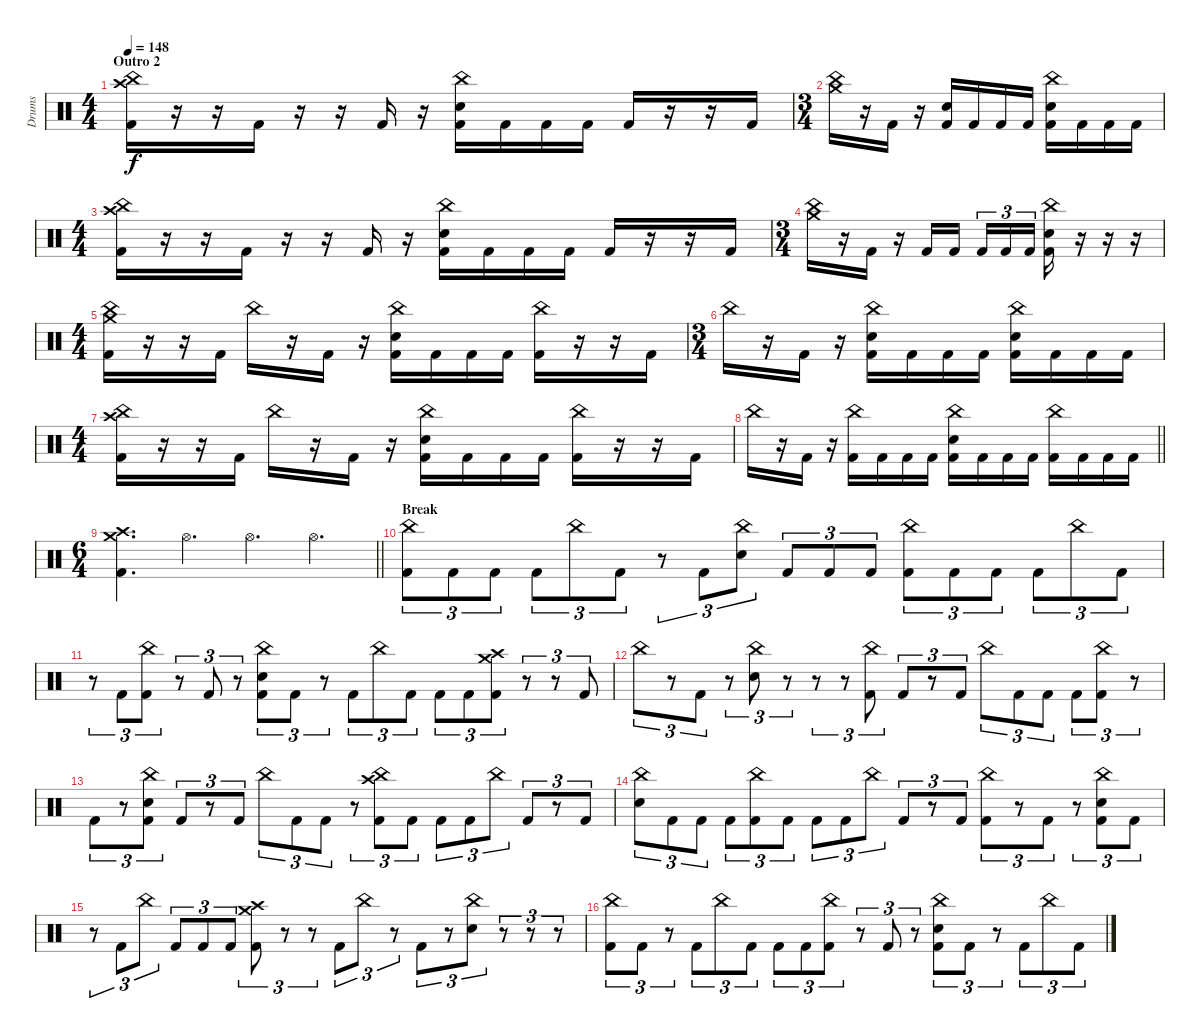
\track ("Drums" "Drums") {instrument percussion}
\staff {score}
\articulation defaults
\ts (4 4)
\section ("" "Outro 2")
\tempo 148
\clef neutral
\ks c
("China (hit)" "Crash high (hit)" "Kick (hit) 2").16{dy f} r.16 r.16 "Kick (hit) 2".16 r.16 r.16 "Kick (hit) 2".16 r.16 ("China (hit)" "Electric Snare (hit)" "Kick (hit) 2").16 "Kick (hit) 2".16 "Kick (hit) 2".16 "Kick (hit) 2".16 "Kick (hit) 2".16 r.16 r.16 "Kick (hit) 2".16 |
\ts (3 4)
("China (hit)" "Crash medium (hit)").16 r.16 "Kick (hit) 2".16 r.16 ("Electric Snare (hit)" "Kick (hit) 2").16 "Kick (hit) 2".16 "Kick (hit) 2".16 "Kick (hit) 2".16 ("China (hit)" "Electric Snare (hit)" "Kick (hit) 2").16 "Kick (hit) 2".16 "Kick (hit) 2".16 "Kick (hit) 2".16 |
\ts (4 4)
("China (hit)" "Crash high (hit)" "Kick (hit) 2").16 r.16 r.16 "Kick (hit) 2".16 r.16 r.16 "Kick (hit) 2".16 r.16 ("China (hit)" "Electric Snare (hit)" "Kick (hit) 2").16 "Kick (hit) 2".16 "Kick (hit) 2".16 "Kick (hit) 2".16 "Kick (hit) 2".16 r.16 r.16 "Kick (hit) 2".16 |
\ts (3 4)
("China (hit)" "Crash medium (hit)").16 r.16 "Kick (hit) 2".16 r.16 "Kick (hit) 2".16 "Kick (hit) 2".16{beam splitsecondary} "Kick (hit) 2".16{tu (3 2)} "Kick (hit) 2".16{tu (3 2)} "Kick (hit) 2".16{tu (3 2)} ("China (hit)" "Electric Snare (hit)" "Kick (hit) 2").16 r.16 r.16 r.16 |
\ts (4 4)
("China (hit)" "Crash medium (hit)" "Kick (hit) 2").16 r.16 r.16 "Kick (hit) 2".16 "China (hit)".16 r.16 "Kick (hit) 2".16 r.16 ("China (hit)" "Electric Snare (hit)" "Kick (hit) 2").16 "Kick (hit) 2".16 "Kick (hit) 2".16 "Kick (hit) 2".16 ("China (hit)" "Kick (hit) 2").16 r.16 r.16 "Kick (hit) 2".16 |
\ts (3 4)
"China (hit)".16 r.16 "Kick (hit) 2".16 r.16 ("China (hit)" "Electric Snare (hit)" "Kick (hit) 2").16 "Kick (hit) 2".16 "Kick (hit) 2".16 "Kick (hit) 2".16 ("China (hit)" "Electric Snare (hit)" "Kick (hit) 2").16 "Kick (hit) 2".16 "Kick (hit) 2".16 "Kick (hit) 2".16 |
\ts (4 4)
("China (hit)" "Crash high (hit)" "Kick (hit) 2").16 r.16 r.16 "Kick (hit) 2".16 "China (hit)".16 r.16 "Kick (hit) 2".16 r.16 ("China (hit)" "Electric Snare (hit)" "Kick (hit) 2").16 "Kick (hit) 2".16 "Kick (hit) 2".16 "Kick (hit) 2".16 ("China (hit)" "Kick (hit) 2").16 r.16 r.16 "Kick (hit) 2".16 |
\barLineRight lightlight "China (hit)".16
r.16 "Kick (hit) 2".16 r.16 ("China (hit)" "Kick (hit) 2").16 "Kick (hit) 2".16 "Kick (hit) 2".16 "Kick (hit) 2".16 ("China (hit)" "Electric Snare (hit)" "Kick (hit) 2").16 "Kick (hit) 2".16 "Kick (hit) 2".16 "Kick (hit) 2".16 ("China (hit)" "Kick (hit) 2").16 "Kick (hit) 2".16 "Kick (hit) 2".16 "Kick (hit) 2".16 |
\ts (6 4)
\barLineRight lightlight
("Crash medium (hit)" "Crash high (hit)" "Kick (hit) 2").4{d} "Hi-Hat (open)".4{d} "Hi-Hat (open)".4{d} "Hi-Hat (open)".4{d} |
\section ("" "Break ")
("China (hit)" "Kick (hit) 2").8{tu (3 2)} "Kick (hit) 2".8{tu (3 2)} "Kick (hit) 2".8{tu (3 2)} "Kick (hit) 2".8{tu (3 2)} "China (hit)".8{tu (3 2)} "Kick (hit) 2".8{tu (3 2)} r.8{tu (3 2)} "Kick (hit) 2".8{tu (3 2)} ("China (hit)" "Electric Snare (hit)").8{tu (3 2)} "Kick (hit) 2".8{tu (3 2)} "Kick (hit) 2".8{tu (3 2)} "Kick (hit) 2".8{tu (3 2)} ("China (hit)" "Kick (hit) 2").8{tu (3 2)} "Kick (hit) 2".8{tu (3 2)} "Kick (hit) 2".8{tu (3 2)} "Kick (hit) 2".8{tu (3 2)} "China (hit)".8{tu (3 2)} "Kick (hit) 2".8{tu (3 2)} |
r.8{tu (3 2)} "Kick (hit) 2".8{tu (3 2)} ("China (hit)" "Kick (hit) 2").8{tu (3 2)} r.8{tu (3 2)} "Kick (hit) 2".8{tu (3 2)} r.8{tu (3 2)} ("China (hit)" "Electric Snare (hit)" "Kick (hit) 2").8{tu (3 2)} "Kick (hit) 2".8{tu (3 2)} r.8{tu (3 2)} "Kick (hit) 2".8{tu (3 2)} "China (hit)".8{tu (3 2)} "Kick (hit) 2".8{tu (3 2)} "Kick (hit) 2".8{tu (3 2)} "Kick (hit) 2".8{tu (3 2)} ("Crash medium (hit)" "Crash high (hit)" "Kick (hit) 2").8{tu (3 2)} r.8{tu (3 2)} r.8{tu (3 2)} "Kick (hit) 2".8{tu (3 2)} |
"China (hit)".8{tu (3 2)} r.8{tu (3 2)} "Kick (hit) 2".8{tu (3 2)} r.8{tu (3 2)} ("China (hit)" "Electric Snare (hit)").8{tu (3 2)} r.8{tu (3 2)} r.8{tu (3 2)} r.8{tu (3 2)} ("China (hit)" "Kick (hit) 2").8{tu (3 2)} "Kick (hit) 2".8{tu (3 2)} r.8{tu (3 2)} "Kick (hit) 2".8{tu (3 2)} "China (hit)".8{tu (3 2)} "Kick (hit) 2".8{tu (3 2)} "Kick (hit) 2".8{tu (3 2)} "Kick (hit) 2".8{tu (3 2)} ("China (hit)" "Kick (hit) 2").8{tu (3 2)} r.8{tu (3 2)} |
"Kick (hit) 2".8{tu (3 2)} r.8{tu (3 2)} ("China (hit)" "Electric Snare (hit)" "Kick (hit) 2").8{tu (3 2)} "Kick (hit) 2".8{tu (3 2)} r.8{tu (3 2)} "Kick (hit) 2".8{tu (3 2)} "China (hit)".8{tu (3 2)} "Kick (hit) 2".8{tu (3 2)} "Kick (hit) 2".8{tu (3 2)} r.8{tu (3 2)} ("China (hit)" "Crash high (hit)" "Kick (hit) 2").8{tu (3 2)} "Kick (hit) 2".8{tu (3 2)} "Kick (hit) 2".8{tu (3 2)} "Kick (hit) 2".8{tu (3 2)} "China (hit)".8{tu (3 2)} "Kick (hit) 2".8{tu (3 2)} r.8{tu (3 2)} "Kick (hit) 2".8{tu (3 2)} |
("China (hit)" "Electric Snare (hit)").8{tu (3 2)} "Kick (hit) 2".8{tu (3 2)} "Kick (hit) 2".8{tu (3 2)} "Kick (hit) 2".8{tu (3 2)} ("China (hit)" "Kick (hit) 2").8{tu (3 2)} "Kick (hit) 2".8{tu (3 2)} "Kick (hit) 2".8{tu (3 2)} "Kick (hit) 2".8{tu (3 2)} "China (hit)".8{tu (3 2)} "Kick (hit) 2".8{tu (3 2)} r.8{tu (3 2)} "Kick (hit) 2".8{tu (3 2)} ("China (hit)" "Kick (hit) 2").8{tu (3 2)} r.8{tu (3 2)} "Kick (hit) 2".8{tu (3 2)} r.8{tu (3 2)} ("China (hit)" "Electric Snare (hit)" "Kick (hit) 2").8{tu (3 2)} "Kick (hit) 2".8{tu (3 2)} |
r.8{tu (3 2)} "Kick (hit) 2".8{tu (3 2)} "China (hit)".8{tu (3 2)} "Kick (hit) 2".8{tu (3 2)} "Kick (hit) 2".8{tu (3 2)} "Kick (hit) 2".8{tu (3 2)} ("Crash medium (hit)" "Crash high (hit)" "Kick (hit) 2").8{tu (3 2)} r.8{tu (3 2)} r.8{tu (3 2)} "Kick (hit) 2".8{tu (3 2)} "China (hit)".8{tu (3 2)} r.8{tu (3 2)} "Kick (hit) 2".8{tu (3 2)} r.8{tu (3 2)} ("China (hit)" "Electric Snare (hit)").8{tu (3 2)} r.8{tu (3 2)} r.8{tu (3 2)} r.8{tu (3 2)} |
("China (hit)" "Kick (hit) 2").8{tu (3 2)} "Kick (hit) 2".8{tu (3 2)} r.8{tu (3 2)} "Kick (hit) 2".8{tu (3 2)} "China (hit)".8{tu (3 2)} "Kick (hit) 2".8{tu (3 2)} "Kick (hit) 2".8{tu (3 2)} "Kick (hit) 2".8{tu (3 2)} ("China (hit)" "Kick (hit) 2").8{tu (3 2)} r.8{tu (3 2)} "Kick (hit) 2".8{tu (3 2)} r.8{tu (3 2)} ("China (hit)" "Electric Snare (hit)" "Kick (hit) 2").8{tu (3 2)} "Kick (hit) 2".8{tu (3 2)} r.8{tu (3 2)} "Kick (hit) 2".8{tu (3 2)} "China (hit)".8{tu (3 2)} "Kick (hit) 2".8{tu (3 2)}
